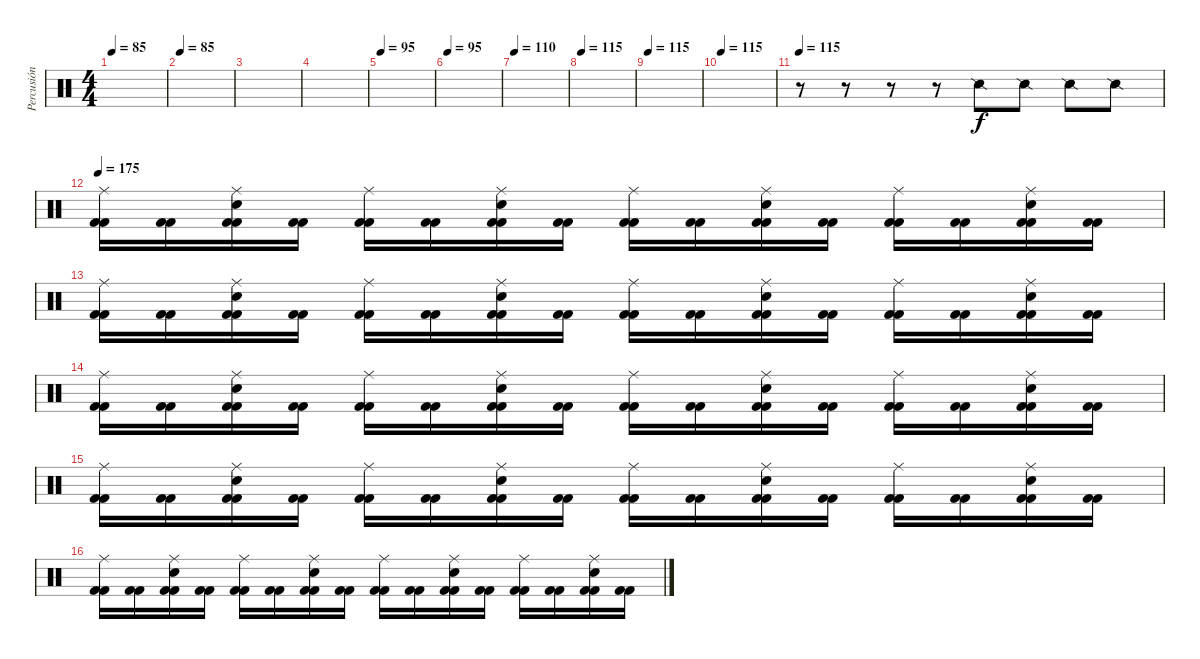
\track ("Percusión" "Percusión") {instrument percussion}
\staff {score}
\articulation defaults
\ts (4 4)
\tempo 85
\clef neutral
\ks c
|
\tempo 85
|
|
|
\tempo 95
|
\tempo 95
|
\tempo 110
|
\tempo 115
|
\tempo 115
|
\tempo 115
|
\tempo 250
\tempo 115
r.8 r.8 r.8 r.8 "Snare (side stick) 2".8{volume 16} "Snare (side stick) 2".8 "Snare (side stick) 2".8 "Snare (side stick) 2".8 |
\tempo 175
("Kick (hit) 2" "Kick (hit) 2" "Ride (middle)").16 ("Kick (hit) 2" "Kick (hit) 2").16 ("Kick (hit) 2" "Kick (hit) 2" "Electric Snare (hit)" "Ride (middle)").16 ("Kick (hit) 2" "Kick (hit) 2").16 ("Kick (hit) 2" "Kick (hit) 2" "Ride (middle)").16 ("Kick (hit) 2" "Kick (hit) 2").16 ("Kick (hit) 2" "Kick (hit) 2" "Electric Snare (hit)" "Ride (middle)").16 ("Kick (hit) 2" "Kick (hit) 2").16 ("Kick (hit) 2" "Kick (hit) 2" "Ride (middle)").16 ("Kick (hit) 2" "Kick (hit) 2").16 ("Kick (hit) 2" "Kick (hit) 2" "Electric Snare (hit)" "Ride (middle)").16 ("Kick (hit) 2" "Kick (hit) 2").16 ("Kick (hit) 2" "Kick (hit) 2" "Ride (middle)").16 ("Kick (hit) 2" "Kick (hit) 2").16 ("Kick (hit) 2" "Kick (hit) 2" "Electric Snare (hit)" "Ride (middle)").16 ("Kick (hit) 2" "Kick (hit) 2").16 |
("Kick (hit) 2" "Kick (hit) 2" "Ride (middle)").16 ("Kick (hit) 2" "Kick (hit) 2").16 ("Kick (hit) 2" "Kick (hit) 2" "Electric Snare (hit)" "Ride (middle)").16 ("Kick (hit) 2" "Kick (hit) 2").16 ("Kick (hit) 2" "Kick (hit) 2" "Ride (middle)").16 ("Kick (hit) 2" "Kick (hit) 2").16 ("Kick (hit) 2" "Kick (hit) 2" "Electric Snare (hit)" "Ride (middle)").16 ("Kick (hit) 2" "Kick (hit) 2").16 ("Kick (hit) 2" "Kick (hit) 2" "Ride (middle)").16 ("Kick (hit) 2" "Kick (hit) 2").16 ("Kick (hit) 2" "Kick (hit) 2" "Electric Snare (hit)" "Ride (middle)").16 ("Kick (hit) 2" "Kick (hit) 2").16 ("Kick (hit) 2" "Kick (hit) 2" "Ride (middle)").16 ("Kick (hit) 2" "Kick (hit) 2").16 ("Kick (hit) 2" "Kick (hit) 2" "Electric Snare (hit)" "Ride (middle)").16 ("Kick (hit) 2" "Kick (hit) 2").16 |
("Kick (hit) 2" "Kick (hit) 2" "Ride (middle)").16 ("Kick (hit) 2" "Kick (hit) 2").16 ("Kick (hit) 2" "Kick (hit) 2" "Electric Snare (hit)" "Ride (middle)").16 ("Kick (hit) 2" "Kick (hit) 2").16 ("Kick (hit) 2" "Kick (hit) 2" "Ride (middle)").16 ("Kick (hit) 2" "Kick (hit) 2").16 ("Kick (hit) 2" "Kick (hit) 2" "Electric Snare (hit)" "Ride (middle)").16 ("Kick (hit) 2" "Kick (hit) 2").16 ("Kick (hit) 2" "Kick (hit) 2" "Ride (middle)").16 ("Kick (hit) 2" "Kick (hit) 2").16 ("Kick (hit) 2" "Kick (hit) 2" "Electric Snare (hit)" "Ride (middle)").16 ("Kick (hit) 2" "Kick (hit) 2").16 ("Kick (hit) 2" "Kick (hit) 2" "Ride (middle)").16 ("Kick (hit) 2" "Kick (hit) 2").16 ("Kick (hit) 2" "Kick (hit) 2" "Electric Snare (hit)" "Ride (middle)").16 ("Kick (hit) 2" "Kick (hit) 2").16 |
("Kick (hit) 2" "Kick (hit) 2" "Ride (middle)").16 ("Kick (hit) 2" "Kick (hit) 2").16 ("Kick (hit) 2" "Kick (hit) 2" "Electric Snare (hit)" "Ride (middle)").16 ("Kick (hit) 2" "Kick (hit) 2").16 ("Kick (hit) 2" "Kick (hit) 2" "Ride (middle)").16 ("Kick (hit) 2" "Kick (hit) 2").16 ("Kick (hit) 2" "Kick (hit) 2" "Electric Snare (hit)" "Ride (middle)").16 ("Kick (hit) 2" "Kick (hit) 2").16 ("Kick (hit) 2" "Kick (hit) 2" "Ride (middle)").16 ("Kick (hit) 2" "Kick (hit) 2").16 ("Kick (hit) 2" "Kick (hit) 2" "Electric Snare (hit)" "Ride (middle)").16 ("Kick (hit) 2" "Kick (hit) 2").16 ("Kick (hit) 2" "Kick (hit) 2" "Ride (middle)").16 ("Kick (hit) 2" "Kick (hit) 2").16 ("Kick (hit) 2" "Kick (hit) 2" "Electric Snare (hit)" "Ride (middle)").16 ("Kick (hit) 2" "Kick (hit) 2").16 |
("Kick (hit) 2" "Kick (hit) 2" "Ride (middle)").16 ("Kick (hit) 2" "Kick (hit) 2").16 ("Kick (hit) 2" "Kick (hit) 2" "Electric Snare (hit)" "Ride (middle)").16 ("Kick (hit) 2" "Kick (hit) 2").16 ("Kick (hit) 2" "Kick (hit) 2" "Ride (middle)").16 ("Kick (hit) 2" "Kick (hit) 2").16 ("Kick (hit) 2" "Kick (hit) 2" "Electric Snare (hit)" "Ride (middle)").16 ("Kick (hit) 2" "Kick (hit) 2").16 ("Kick (hit) 2" "Kick (hit) 2" "Ride (middle)").16 ("Kick (hit) 2" "Kick (hit) 2").16 ("Kick (hit) 2" "Kick (hit) 2" "Electric Snare (hit)" "Ride (middle)").16 ("Kick (hit) 2" "Kick (hit) 2").16 ("Kick (hit) 2" "Kick (hit) 2" "Ride (middle)").16 ("Kick (hit) 2" "Kick (hit) 2").16 ("Kick (hit) 2" "Kick (hit) 2" "Electric Snare (hit)" "Ride (middle)").16 ("Kick (hit) 2" "Kick (hit) 2").16
